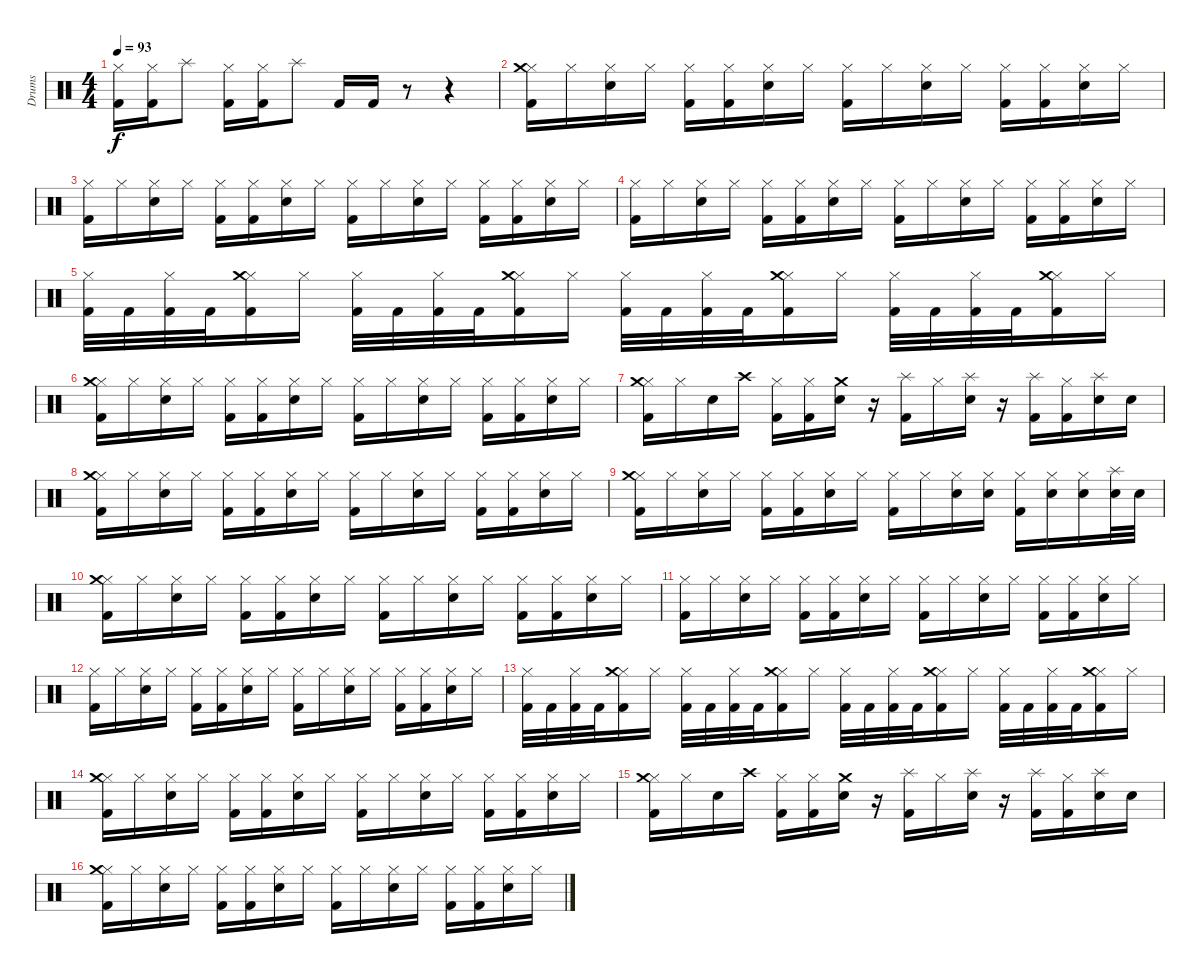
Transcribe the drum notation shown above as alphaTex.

\track ("Drums" "Drums") {instrument percussion}
\staff {score}
\articulation defaults
\ts (4 4)
\tempo 93
\clef neutral
\ks c
("Hi-Hat (closed)" "Kick (hit) 2").16{dy f} ("Hi-Hat (closed)" "Kick (hit) 2").16 "Splash (hit)".8 ("Hi-Hat (closed)" "Kick (hit) 2").16 ("Hi-Hat (closed)" "Kick (hit) 2").16 "Splash (hit)".8 "Kick (hit) 2".16 "Kick (hit) 2".16 r.8 r.4 |
("Hi-Hat (closed)" "Crash medium (hit)" "Kick (hit) 2").16 "Hi-Hat (closed)".16 ("Hi-Hat (closed)" "Snare (hit) 2").16 "Hi-Hat (closed)".16 ("Hi-Hat (closed)" "Kick (hit) 2").16 ("Hi-Hat (closed)" "Kick (hit) 2").16 ("Hi-Hat (closed)" "Snare (hit) 2").16 "Hi-Hat (closed)".16 ("Hi-Hat (closed)" "Kick (hit) 2").16 "Hi-Hat (closed)".16 ("Hi-Hat (closed)" "Snare (hit) 2").16 "Hi-Hat (closed)".16 ("Hi-Hat (closed)" "Kick (hit) 2").16 ("Hi-Hat (closed)" "Kick (hit) 2").16 ("Hi-Hat (closed)" "Snare (hit) 2").16 "Hi-Hat (closed)".16 |
("Hi-Hat (closed)" "Kick (hit) 2").16 "Hi-Hat (closed)".16 ("Hi-Hat (closed)" "Snare (hit) 2").16 "Hi-Hat (closed)".16 ("Hi-Hat (closed)" "Kick (hit) 2").16 ("Hi-Hat (closed)" "Kick (hit) 2").16 ("Hi-Hat (closed)" "Snare (hit) 2").16 "Hi-Hat (closed)".16 ("Hi-Hat (closed)" "Kick (hit) 2").16 "Hi-Hat (closed)".16 ("Hi-Hat (closed)" "Snare (hit) 2").16 "Hi-Hat (closed)".16 ("Hi-Hat (closed)" "Kick (hit) 2").16 ("Hi-Hat (closed)" "Kick (hit) 2").16 ("Hi-Hat (closed)" "Snare (hit) 2").16 "Hi-Hat (closed)".16 |
("Hi-Hat (closed)" "Kick (hit) 2").16 "Hi-Hat (closed)".16 ("Hi-Hat (closed)" "Snare (hit) 2").16 "Hi-Hat (closed)".16 ("Hi-Hat (closed)" "Kick (hit) 2").16 ("Hi-Hat (closed)" "Kick (hit) 2").16 ("Hi-Hat (closed)" "Snare (hit) 2").16 "Hi-Hat (closed)".16 ("Hi-Hat (closed)" "Kick (hit) 2").16 "Hi-Hat (closed)".16 ("Hi-Hat (closed)" "Snare (hit) 2").16 "Hi-Hat (closed)".16 ("Hi-Hat (closed)" "Kick (hit) 2").16 ("Hi-Hat (closed)" "Kick (hit) 2").16 ("Hi-Hat (closed)" "Snare (hit) 2").16 "Hi-Hat (closed)".16 |
("Hi-Hat (closed)" "Kick (hit) 2").32 "Kick (hit) 2".32 ("Hi-Hat (closed)" "Kick (hit) 2").32 "Kick (hit) 2".32 ("Hi-Hat (closed)" "Crash medium (hit)" "Kick (hit) 2").16 "Hi-Hat (closed)".16 ("Hi-Hat (closed)" "Kick (hit) 2").32 "Kick (hit) 2".32 ("Hi-Hat (closed)" "Kick (hit) 2").32 "Kick (hit) 2".32 ("Hi-Hat (closed)" "Crash medium (hit)" "Kick (hit) 2").16 "Hi-Hat (closed)".16 ("Hi-Hat (closed)" "Kick (hit) 2").32 "Kick (hit) 2".32 ("Hi-Hat (closed)" "Kick (hit) 2").32 "Kick (hit) 2".32 ("Hi-Hat (closed)" "Crash medium (hit)" "Kick (hit) 2").16 "Hi-Hat (closed)".16 ("Hi-Hat (closed)" "Kick (hit) 2").32 "Kick (hit) 2".32 ("Hi-Hat (closed)" "Kick (hit) 2").32 "Kick (hit) 2".32 ("Hi-Hat (closed)" "Crash medium (hit)" "Kick (hit) 2").16 "Hi-Hat (closed)".16 |
("Hi-Hat (closed)" "Crash medium (hit)" "Kick (hit) 2").16 "Hi-Hat (closed)".16 ("Hi-Hat (closed)" "Snare (hit) 2").16 "Hi-Hat (closed)".16 ("Hi-Hat (closed)" "Kick (hit) 2").16 ("Hi-Hat (closed)" "Kick (hit) 2").16 ("Hi-Hat (closed)" "Snare (hit) 2").16 "Hi-Hat (closed)".16 ("Hi-Hat (closed)" "Kick (hit) 2").16 "Hi-Hat (closed)".16 ("Hi-Hat (closed)" "Snare (hit) 2").16 "Hi-Hat (closed)".16 ("Hi-Hat (closed)" "Kick (hit) 2").16 ("Hi-Hat (closed)" "Kick (hit) 2").16 ("Hi-Hat (closed)" "Snare (hit) 2").16 "Hi-Hat (closed)".16 |
("Hi-Hat (closed)" "Crash medium (hit)" "Kick (hit) 2").16 "Hi-Hat (closed)".16 "Snare (hit) 2".16 "Crash high (hit)".16 ("Hi-Hat (closed)" "Kick (hit) 2").16 ("Hi-Hat (closed)" "Kick (hit) 2").16 ("Crash medium (hit)" "Snare (hit) 2").16 r.16 ("Splash (hit)" "Kick (hit) 2").16 "Hi-Hat (closed)".16 ("Splash (hit)" "Snare (hit) 2").16 r.16 ("Splash (hit)" "Kick (hit) 2").16 ("Hi-Hat (closed)" "Kick (hit) 2").16 ("Splash (hit)" "Snare (hit) 2").16 "Snare (hit) 2".16 |
("Hi-Hat (closed)" "Crash medium (hit)" "Kick (hit) 2").16 "Hi-Hat (closed)".16 ("Hi-Hat (closed)" "Snare (hit) 2").16 "Hi-Hat (closed)".16 ("Hi-Hat (closed)" "Kick (hit) 2").16 ("Hi-Hat (closed)" "Kick (hit) 2").16 ("Hi-Hat (closed)" "Snare (hit) 2").16 "Hi-Hat (closed)".16 ("Hi-Hat (closed)" "Kick (hit) 2").16 "Hi-Hat (closed)".16 ("Hi-Hat (closed)" "Snare (hit) 2").16 "Hi-Hat (closed)".16 ("Hi-Hat (closed)" "Kick (hit) 2").16 ("Hi-Hat (closed)" "Kick (hit) 2").16 ("Hi-Hat (closed)" "Snare (hit) 2").16 "Hi-Hat (closed)".16 |
("Hi-Hat (closed)" "Crash medium (hit)" "Kick (hit) 2").16 "Hi-Hat (closed)".16 ("Hi-Hat (closed)" "Snare (hit) 2").16 "Hi-Hat (closed)".16 ("Hi-Hat (closed)" "Kick (hit) 2").16 ("Hi-Hat (closed)" "Kick (hit) 2").16 ("Hi-Hat (closed)" "Snare (hit) 2").16 "Hi-Hat (closed)".16 ("Hi-Hat (closed)" "Kick (hit) 2").16 "Hi-Hat (closed)".16 ("Hi-Hat (closed)" "Snare (hit) 2").16 ("Hi-Hat (closed)" "Snare (hit) 2").16 ("Hi-Hat (closed)" "Kick (hit) 2").16 ("Hi-Hat (closed)" "Snare (hit) 2").16 ("Hi-Hat (closed)" "Snare (hit) 2").16 ("Splash (hit)" "Snare (hit) 2").32 "Snare (hit) 2".32 |
("Hi-Hat (closed)" "Crash medium (hit)" "Kick (hit) 2").16 "Hi-Hat (closed)".16 ("Hi-Hat (closed)" "Snare (hit) 2").16 "Hi-Hat (closed)".16 ("Hi-Hat (closed)" "Kick (hit) 2").16 ("Hi-Hat (closed)" "Kick (hit) 2").16 ("Hi-Hat (closed)" "Snare (hit) 2").16 "Hi-Hat (closed)".16 ("Hi-Hat (closed)" "Kick (hit) 2").16 "Hi-Hat (closed)".16 ("Hi-Hat (closed)" "Snare (hit) 2").16 "Hi-Hat (closed)".16 ("Hi-Hat (closed)" "Kick (hit) 2").16 ("Hi-Hat (closed)" "Kick (hit) 2").16 ("Hi-Hat (closed)" "Snare (hit) 2").16 "Hi-Hat (closed)".16 |
("Hi-Hat (closed)" "Kick (hit) 2").16 "Hi-Hat (closed)".16 ("Hi-Hat (closed)" "Snare (hit) 2").16 "Hi-Hat (closed)".16 ("Hi-Hat (closed)" "Kick (hit) 2").16 ("Hi-Hat (closed)" "Kick (hit) 2").16 ("Hi-Hat (closed)" "Snare (hit) 2").16 "Hi-Hat (closed)".16 ("Hi-Hat (closed)" "Kick (hit) 2").16 "Hi-Hat (closed)".16 ("Hi-Hat (closed)" "Snare (hit) 2").16 "Hi-Hat (closed)".16 ("Hi-Hat (closed)" "Kick (hit) 2").16 ("Hi-Hat (closed)" "Kick (hit) 2").16 ("Hi-Hat (closed)" "Snare (hit) 2").16 "Hi-Hat (closed)".16 |
("Hi-Hat (closed)" "Kick (hit) 2").16 "Hi-Hat (closed)".16 ("Hi-Hat (closed)" "Snare (hit) 2").16 "Hi-Hat (closed)".16 ("Hi-Hat (closed)" "Kick (hit) 2").16 ("Hi-Hat (closed)" "Kick (hit) 2").16 ("Hi-Hat (closed)" "Snare (hit) 2").16 "Hi-Hat (closed)".16 ("Hi-Hat (closed)" "Kick (hit) 2").16 "Hi-Hat (closed)".16 ("Hi-Hat (closed)" "Snare (hit) 2").16 "Hi-Hat (closed)".16 ("Hi-Hat (closed)" "Kick (hit) 2").16 ("Hi-Hat (closed)" "Kick (hit) 2").16 ("Hi-Hat (closed)" "Snare (hit) 2").16 "Hi-Hat (closed)".16 |
("Hi-Hat (closed)" "Kick (hit) 2").32 "Kick (hit) 2".32 ("Hi-Hat (closed)" "Kick (hit) 2").32 "Kick (hit) 2".32 ("Hi-Hat (closed)" "Crash medium (hit)" "Kick (hit) 2").16 "Hi-Hat (closed)".16 ("Hi-Hat (closed)" "Kick (hit) 2").32 "Kick (hit) 2".32 ("Hi-Hat (closed)" "Kick (hit) 2").32 "Kick (hit) 2".32 ("Hi-Hat (closed)" "Crash medium (hit)" "Kick (hit) 2").16 "Hi-Hat (closed)".16 ("Hi-Hat (closed)" "Kick (hit) 2").32 "Kick (hit) 2".32 ("Hi-Hat (closed)" "Kick (hit) 2").32 "Kick (hit) 2".32 ("Hi-Hat (closed)" "Crash medium (hit)" "Kick (hit) 2").16 "Hi-Hat (closed)".16 ("Hi-Hat (closed)" "Kick (hit) 2").32 "Kick (hit) 2".32 ("Hi-Hat (closed)" "Kick (hit) 2").32 "Kick (hit) 2".32 ("Hi-Hat (closed)" "Crash medium (hit)" "Kick (hit) 2").16 "Hi-Hat (closed)".16 |
("Hi-Hat (closed)" "Crash medium (hit)" "Kick (hit) 2").16 "Hi-Hat (closed)".16 ("Hi-Hat (closed)" "Snare (hit) 2").16 "Hi-Hat (closed)".16 ("Hi-Hat (closed)" "Kick (hit) 2").16 ("Hi-Hat (closed)" "Kick (hit) 2").16 ("Hi-Hat (closed)" "Snare (hit) 2").16 "Hi-Hat (closed)".16 ("Hi-Hat (closed)" "Kick (hit) 2").16 "Hi-Hat (closed)".16 ("Hi-Hat (closed)" "Snare (hit) 2").16 "Hi-Hat (closed)".16 ("Hi-Hat (closed)" "Kick (hit) 2").16 ("Hi-Hat (closed)" "Kick (hit) 2").16 ("Hi-Hat (closed)" "Snare (hit) 2").16 "Hi-Hat (closed)".16 |
("Hi-Hat (closed)" "Crash medium (hit)" "Kick (hit) 2").16 "Hi-Hat (closed)".16 "Snare (hit) 2".16 "Crash high (hit)".16 ("Hi-Hat (closed)" "Kick (hit) 2").16 ("Hi-Hat (closed)" "Kick (hit) 2").16 ("Crash medium (hit)" "Snare (hit) 2").16 r.16 ("Splash (hit)" "Kick (hit) 2").16 "Hi-Hat (closed)".16 ("Splash (hit)" "Snare (hit) 2").16 r.16 ("Splash (hit)" "Kick (hit) 2").16 ("Hi-Hat (closed)" "Kick (hit) 2").16 ("Splash (hit)" "Snare (hit) 2").16 "Snare (hit) 2".16 |
("Hi-Hat (closed)" "Crash medium (hit)" "Kick (hit) 2").16 "Hi-Hat (closed)".16 ("Hi-Hat (closed)" "Snare (hit) 2").16 "Hi-Hat (closed)".16 ("Hi-Hat (closed)" "Kick (hit) 2").16 ("Hi-Hat (closed)" "Kick (hit) 2").16 ("Hi-Hat (closed)" "Snare (hit) 2").16 "Hi-Hat (closed)".16 ("Hi-Hat (closed)" "Kick (hit) 2").16 "Hi-Hat (closed)".16 ("Hi-Hat (closed)" "Snare (hit) 2").16 "Hi-Hat (closed)".16 ("Hi-Hat (closed)" "Kick (hit) 2").16 ("Hi-Hat (closed)" "Kick (hit) 2").16 ("Hi-Hat (closed)" "Snare (hit) 2").16 "Hi-Hat (closed)".16
